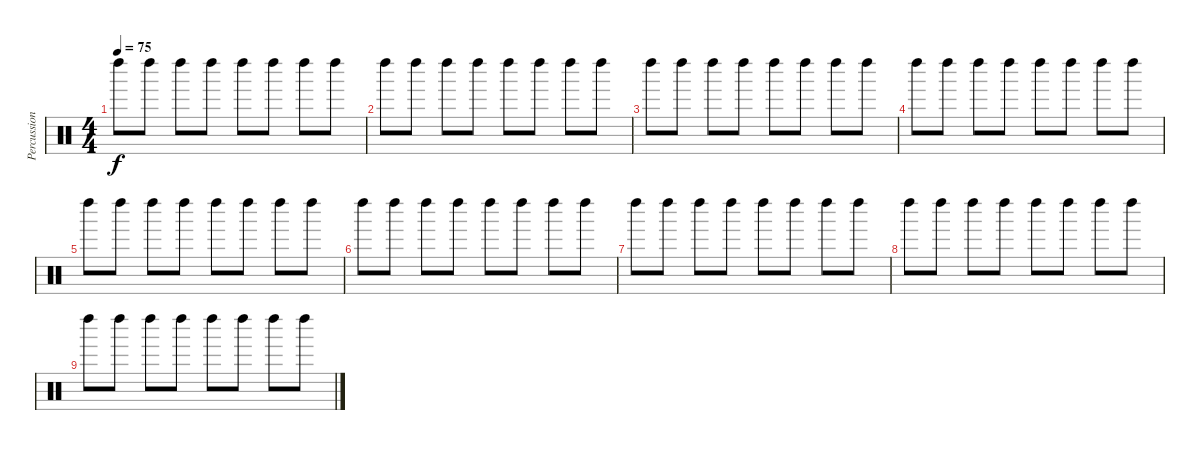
\track ("Percussion2" "Percussion") {instrument percussion}
\staff {score}
\articulation defaults
\ts (4 4)
\tempo 75
\clef neutral
\ks c "Left Maraca (hit)".8{dy f} "Left Maraca (hit)".8 "Left Maraca (hit)".8 "Left Maraca (hit)".8 "Left Maraca (hit)".8 "Left Maraca (hit)".8 "Left Maraca (hit)".8 "Left Maraca (hit)".8
|
"Left Maraca (hit)".8 "Left Maraca (hit)".8 "Left Maraca (hit)".8 "Left Maraca (hit)".8 "Left Maraca (hit)".8 "Left Maraca (hit)".8 "Left Maraca (hit)".8 "Left Maraca (hit)".8 |
"Left Maraca (hit)".8 "Left Maraca (hit)".8 "Left Maraca (hit)".8 "Left Maraca (hit)".8 "Left Maraca (hit)".8 "Left Maraca (hit)".8 "Left Maraca (hit)".8 "Left Maraca (hit)".8 |
"Left Maraca (hit)".8 "Left Maraca (hit)".8 "Left Maraca (hit)".8 "Left Maraca (hit)".8 "Left Maraca (hit)".8 "Left Maraca (hit)".8 "Left Maraca (hit)".8 "Left Maraca (hit)".8 |
"Left Maraca (hit)".8 "Left Maraca (hit)".8 "Left Maraca (hit)".8 "Left Maraca (hit)".8 "Left Maraca (hit)".8 "Left Maraca (hit)".8 "Left Maraca (hit)".8 "Left Maraca (hit)".8 |
"Left Maraca (hit)".8{volume 13} "Left Maraca (hit)".8 "Left Maraca (hit)".8 "Left Maraca (hit)".8 "Left Maraca (hit)".8{volume 12} "Left Maraca (hit)".8 "Left Maraca (hit)".8 "Left Maraca (hit)".8 |
"Left Maraca (hit)".8{volume 10} "Left Maraca (hit)".8 "Left Maraca (hit)".8 "Left Maraca (hit)".8 "Left Maraca (hit)".8 "Left Maraca (hit)".8 "Left Maraca (hit)".8 "Left Maraca (hit)".8 |
"Left Maraca (hit)".8{volume 8} "Left Maraca (hit)".8 "Left Maraca (hit)".8 "Left Maraca (hit)".8 "Left Maraca (hit)".8{volume 7} "Left Maraca (hit)".8 "Left Maraca (hit)".8 "Left Maraca (hit)".8 |
"Left Maraca (hit)".8{volume 5} "Left Maraca (hit)".8 "Left Maraca (hit)".8 "Left Maraca (hit)".8 "Left Maraca (hit)".8{volume 3} "Left Maraca (hit)".8 "Left Maraca (hit)".8 "Left Maraca (hit)".8
